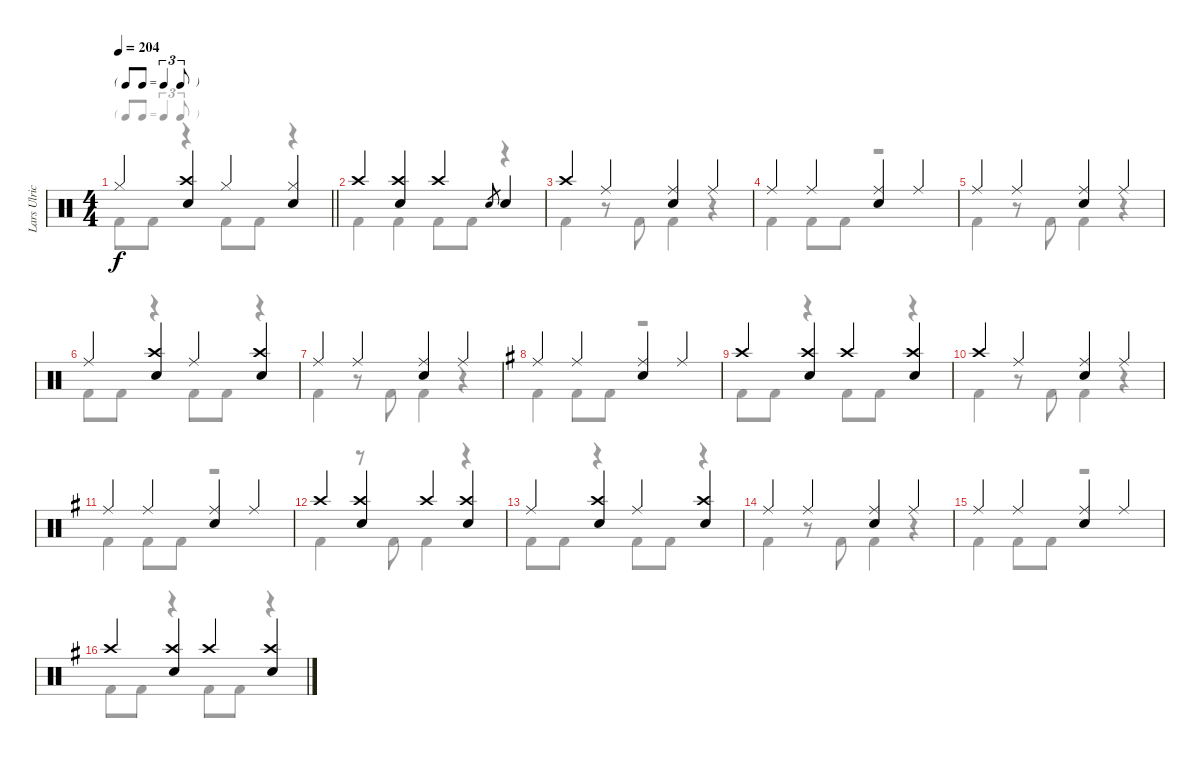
\track ("Lars Ulrich" "Lars Ulric") {instrument percussion}
\staff {score}
\articulation defaults
\voice
\ts (4 4)
\tf triplet8th
\tempo 204
\clef neutral
\barLineRight lightlight
\ks c "Hi-Hat (closed)".4{dy f}
("Crash high (hit)" "Snare (hit) 2").4 "Hi-Hat (closed)".4 ("Hi-Hat (closed)" "Snare (hit) 2").4 |
"Crash high (hit)".4 ("Crash high (hit)" "Snare (hit) 2").4 "Crash high (hit)".4 "Snare (hit) 2"{h}.8{gr} "Snare (hit) 2".4 |
"Crash high (hit)".4 "Ride (middle)".4 ("Ride (middle)" "Snare (hit) 2").4 "Ride (middle)".4 |
"Ride (middle)".4 "Ride (middle)".4 ("Ride (middle)" "Snare (hit) 2").4 "Ride (middle)".4 |
"Ride (middle)".4 "Ride (middle)".4 ("Ride (middle)" "Snare (hit) 2").4 "Ride (middle)".4 |
"Ride (middle)".4 ("Crash high (hit)" "Snare (hit) 2").4 "Ride (middle)".4 ("Crash high (hit)" "Snare (hit) 2").4 |
"Ride (middle)".4 "Ride (middle)".4 ("Ride (middle)" "Snare (hit) 2").4 "Ride (middle)".4 |
\ks eminor "Ride (middle)".4 "Ride (middle)".4
("Ride (middle)" "Snare (hit) 2").4 "Ride (middle)".4 |
"Crash high (hit)".4 ("Crash high (hit)" "Snare (hit) 2").4 "Crash high (hit)".4 ("Crash high (hit)" "Snare (hit) 2").4 |
"Crash high (hit)".4 "Ride (middle)".4 ("Ride (middle)" "Snare (hit) 2").4 "Ride (middle)".4 |
"Ride (middle)".4 "Ride (middle)".4 ("Ride (middle)" "Snare (hit) 2").4 "Ride (middle)".4 |
"Crash high (hit)".4 ("Crash high (hit)" "Snare (hit) 2").4 "Crash high (hit)".4 ("Crash high (hit)" "Snare (hit) 2").4 |
"Ride (middle)".4 ("Crash high (hit)" "Snare (hit) 2").4 "Ride (middle)".4 ("Crash high (hit)" "Snare (hit) 2").4 |
"Ride (middle)".4 "Ride (middle)".4 ("Ride (middle)" "Snare (hit) 2").4 "Ride (middle)".4 |
"Ride (middle)".4 "Ride (middle)".4 ("Ride (middle)" "Snare (hit) 2").4 "Ride (middle)".4 |
"Crash high (hit)".4 ("Crash high (hit)" "Snare (hit) 2").4 "Crash high (hit)".4 ("Crash high (hit)" "Snare (hit) 2").4
\voice
\clef neutral
\ottava regular
\simile none
\barLineRight lightlight
\ks c "Kick (hit) 2".8{dy f} "Kick (hit) 2".8
r.4 "Kick (hit) 2".8 "Kick (hit) 2".8 r.4 |
"Kick (hit) 2".4 "Kick (hit) 2".4 "Kick (hit) 2".8 "Kick (hit) 2".8 r.4 |
"Kick (hit) 2".4 r.8 "Kick (hit) 2".8 "Kick (hit) 2".4 r.4 |
"Kick (hit) 2".4 "Kick (hit) 2".8 "Kick (hit) 2".8 r.2 |
"Kick (hit) 2".4 r.8 "Kick (hit) 2".8 "Kick (hit) 2".4 r.4 |
"Kick (hit) 2".8 "Kick (hit) 2".8 r.4 "Kick (hit) 2".8 "Kick (hit) 2".8 r.4 |
"Kick (hit) 2".4 r.8 "Kick (hit) 2".8 "Kick (hit) 2".4 r.4 |
\ks eminor "Kick (hit) 2".4 "Kick (hit) 2".8 "Kick (hit) 2".8
r.2 |
"Kick (hit) 2".8 "Kick (hit) 2".8 r.4 "Kick (hit) 2".8 "Kick (hit) 2".8 r.4 |
"Kick (hit) 2".4 r.8 "Kick (hit) 2".8 "Kick (hit) 2".4 r.4 |
"Kick (hit) 2".4 "Kick (hit) 2".8 "Kick (hit) 2".8 r.2 |
"Kick (hit) 2".4 r.8 "Kick (hit) 2".8 "Kick (hit) 2".4 r.4 |
"Kick (hit) 2".8 "Kick (hit) 2".8 r.4 "Kick (hit) 2".8 "Kick (hit) 2".8 r.4 |
"Kick (hit) 2".4 r.8 "Kick (hit) 2".8 "Kick (hit) 2".4 r.4 |
"Kick (hit) 2".4 "Kick (hit) 2".8 "Kick (hit) 2".8 r.2 |
"Kick (hit) 2".8 "Kick (hit) 2".8 r.4 "Kick (hit) 2".8 "Kick (hit) 2".8 r.4
